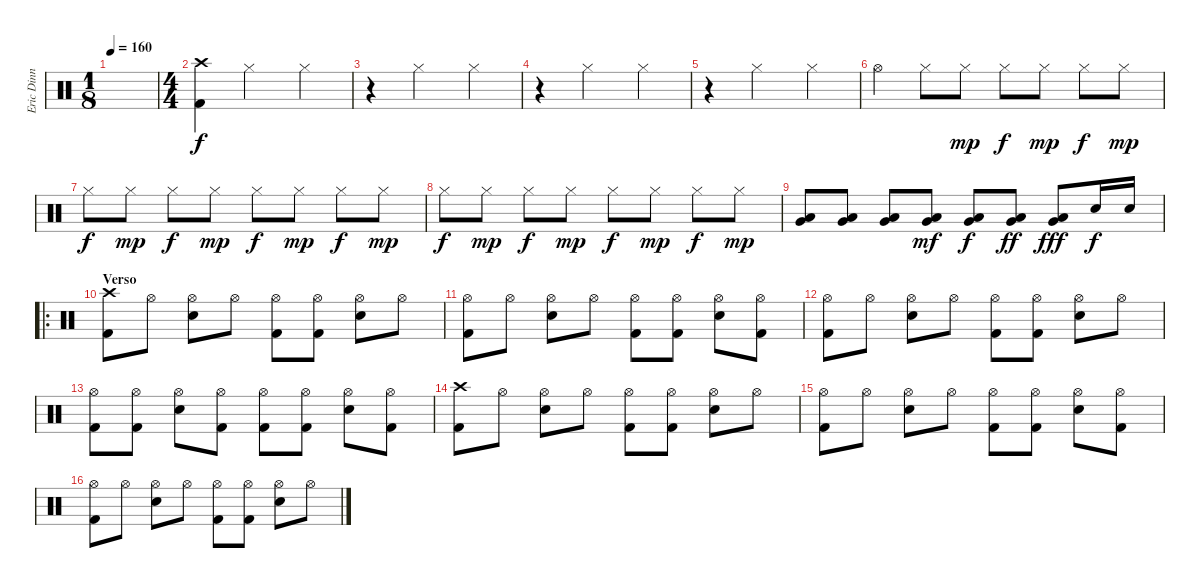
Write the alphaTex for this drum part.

\track ("Eric Dinn" "Eric Dinn") {instrument percussion}
\staff {score}
\articulation defaults
\ts (1 8)
\tempo 160
\clef neutral
\ks c
|
\ts (4 4)
("Crash high (hit)" "Kick (hit) 2").4 "Hi-Hat (closed)".2 "Hi-Hat (closed)".4 |
r.4 "Hi-Hat (closed)".2 "Hi-Hat (closed)".4 |
r.4 "Hi-Hat (closed)".2 "Hi-Hat (closed)".4 |
r.4 "Hi-Hat (closed)".2 "Hi-Hat (closed)".4 |
"Hi-Hat (open)".4 "Hi-Hat (closed)".8 "Hi-Hat (closed)".8{dy mp} "Hi-Hat (closed)".8{dy f} "Hi-Hat (closed)".8{dy mp} "Hi-Hat (closed)".8{dy f} "Hi-Hat (closed)".8{dy mp} |
"Hi-Hat (closed)".8{dy f} "Hi-Hat (closed)".8{dy mp} "Hi-Hat (closed)".8{dy f} "Hi-Hat (closed)".8{dy mp} "Hi-Hat (closed)".8{dy f} "Hi-Hat (closed)".8{dy mp} "Hi-Hat (closed)".8{dy f} "Hi-Hat (closed)".8{dy mp} |
"Hi-Hat (closed)".8{dy f} "Hi-Hat (closed)".8{dy mp} "Hi-Hat (closed)".8{dy f} "Hi-Hat (closed)".8{dy mp} "Hi-Hat (closed)".8{dy f} "Hi-Hat (closed)".8{dy mp} "Hi-Hat (closed)".8{dy f} "Hi-Hat (closed)".8{dy mp} |
("Very Low Tom (hit)" "Low Tom (hit)").8 ("Very Low Tom (hit)" "Low Tom (hit)").8 ("Very Low Tom (hit)" "Low Tom (hit)").8 ("Very Low Tom (hit)" "Low Tom (hit)").8{dy mf} ("Very Low Tom (hit)" "Low Tom (hit)").8{dy f} ("Very Low Tom (hit)" "Low Tom (hit)").8{dy ff} ("Very Low Tom (hit)" "Low Tom (hit)").8{dy fff} "Snare (hit) 2".16{dy f} "Snare (hit) 2".16 |
\ro
\section ("" "Verso")
("Crash high (hit)" "Kick (hit) 2").8 "Hi-Hat (open)".8 ("Hi-Hat (open)" "Snare (hit) 2").8 "Hi-Hat (open)".8 ("Hi-Hat (open)" "Kick (hit) 2").8 ("Hi-Hat (open)" "Kick (hit) 2").8 ("Hi-Hat (open)" "Snare (hit) 2").8 "Hi-Hat (open)".8 |
("Hi-Hat (open)" "Kick (hit) 2").8 "Hi-Hat (open)".8 ("Hi-Hat (open)" "Snare (hit) 2").8 "Hi-Hat (open)".8 ("Hi-Hat (open)" "Kick (hit) 2").8 ("Hi-Hat (open)" "Kick (hit) 2").8 ("Hi-Hat (open)" "Snare (hit) 2").8 ("Hi-Hat (open)" "Kick (hit) 2").8 |
("Hi-Hat (open)" "Kick (hit) 2").8 "Hi-Hat (open)".8 ("Hi-Hat (open)" "Snare (hit) 2").8 "Hi-Hat (open)".8 ("Hi-Hat (open)" "Kick (hit) 2").8 ("Hi-Hat (open)" "Kick (hit) 2").8 ("Hi-Hat (open)" "Snare (hit) 2").8 "Hi-Hat (open)".8 |
("Hi-Hat (open)" "Kick (hit) 2").8 ("Hi-Hat (open)" "Kick (hit) 2").8 ("Hi-Hat (open)" "Snare (hit) 2").8 ("Hi-Hat (open)" "Kick (hit) 2").8 ("Hi-Hat (open)" "Kick (hit) 2").8 ("Hi-Hat (open)" "Kick (hit) 2").8 ("Hi-Hat (open)" "Snare (hit) 2").8 ("Hi-Hat (open)" "Kick (hit) 2").8 |
("Crash high (hit)" "Kick (hit) 2").8 "Hi-Hat (open)".8 ("Hi-Hat (open)" "Snare (hit) 2").8 "Hi-Hat (open)".8 ("Hi-Hat (open)" "Kick (hit) 2").8 ("Hi-Hat (open)" "Kick (hit) 2").8 ("Hi-Hat (open)" "Snare (hit) 2").8 "Hi-Hat (open)".8 |
("Hi-Hat (open)" "Kick (hit) 2").8 "Hi-Hat (open)".8 ("Hi-Hat (open)" "Snare (hit) 2").8 "Hi-Hat (open)".8 ("Hi-Hat (open)" "Kick (hit) 2").8 ("Hi-Hat (open)" "Kick (hit) 2").8 ("Hi-Hat (open)" "Snare (hit) 2").8 ("Hi-Hat (open)" "Kick (hit) 2").8 |
("Hi-Hat (open)" "Kick (hit) 2").8 "Hi-Hat (open)".8 ("Hi-Hat (open)" "Snare (hit) 2").8 "Hi-Hat (open)".8 ("Hi-Hat (open)" "Kick (hit) 2").8 ("Hi-Hat (open)" "Kick (hit) 2").8 ("Hi-Hat (open)" "Snare (hit) 2").8 "Hi-Hat (open)".8
